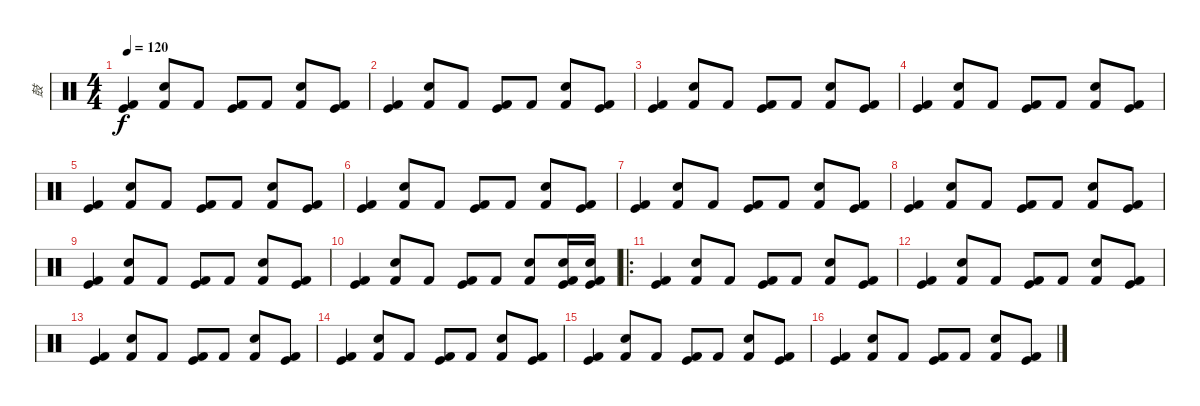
\track ("鼓" "鼓") {instrument percussion}
\staff {score}
\articulation defaults
\ts (4 4)
\tempo 120
\clef neutral
\ks c
("Kick (hit) 2" "Kick (hit)").4{dy f} ("Kick (hit) 2" "Electric Snare (hit)").8 "Kick (hit) 2".8 ("Kick (hit) 2" "Kick (hit)").8 "Kick (hit) 2".8 ("Kick (hit) 2" "Electric Snare (hit)").8 ("Kick (hit) 2" "Kick (hit)").8 |
("Kick (hit) 2" "Kick (hit)").4 ("Kick (hit) 2" "Electric Snare (hit)").8 "Kick (hit) 2".8 ("Kick (hit) 2" "Kick (hit)").8 "Kick (hit) 2".8 ("Kick (hit) 2" "Electric Snare (hit)").8 ("Kick (hit) 2" "Kick (hit)").8 |
("Kick (hit) 2" "Kick (hit)").4 ("Kick (hit) 2" "Electric Snare (hit)").8 "Kick (hit) 2".8 ("Kick (hit) 2" "Kick (hit)").8 "Kick (hit) 2".8 ("Kick (hit) 2" "Electric Snare (hit)").8 ("Kick (hit) 2" "Kick (hit)").8 |
("Kick (hit) 2" "Kick (hit)").4 ("Kick (hit) 2" "Electric Snare (hit)").8 "Kick (hit) 2".8 ("Kick (hit) 2" "Kick (hit)").8 "Kick (hit) 2".8 ("Kick (hit) 2" "Electric Snare (hit)").8 ("Kick (hit) 2" "Kick (hit)").8 |
("Kick (hit) 2" "Kick (hit)").4 ("Kick (hit) 2" "Electric Snare (hit)").8 "Kick (hit) 2".8 ("Kick (hit) 2" "Kick (hit)").8 "Kick (hit) 2".8 ("Kick (hit) 2" "Electric Snare (hit)").8 ("Kick (hit) 2" "Kick (hit)").8 |
("Kick (hit) 2" "Kick (hit)").4 ("Kick (hit) 2" "Electric Snare (hit)").8 "Kick (hit) 2".8 ("Kick (hit) 2" "Kick (hit)").8 "Kick (hit) 2".8 ("Kick (hit) 2" "Electric Snare (hit)").8 ("Kick (hit) 2" "Kick (hit)").8 |
("Kick (hit) 2" "Kick (hit)").4 ("Kick (hit) 2" "Electric Snare (hit)").8 "Kick (hit) 2".8 ("Kick (hit) 2" "Kick (hit)").8 "Kick (hit) 2".8 ("Kick (hit) 2" "Electric Snare (hit)").8 ("Kick (hit) 2" "Kick (hit)").8 |
("Kick (hit) 2" "Kick (hit)").4 ("Kick (hit) 2" "Electric Snare (hit)").8 "Kick (hit) 2".8 ("Kick (hit) 2" "Kick (hit)").8 "Kick (hit) 2".8 ("Kick (hit) 2" "Electric Snare (hit)").8 ("Kick (hit) 2" "Kick (hit)").8 |
("Kick (hit) 2" "Kick (hit)").4 ("Kick (hit) 2" "Electric Snare (hit)").8 "Kick (hit) 2".8 ("Kick (hit) 2" "Kick (hit)").8 "Kick (hit) 2".8 ("Kick (hit) 2" "Electric Snare (hit)").8 ("Kick (hit) 2" "Kick (hit)").8 |
("Kick (hit) 2" "Kick (hit)").4 ("Kick (hit) 2" "Electric Snare (hit)").8 "Kick (hit) 2".8 ("Kick (hit) 2" "Kick (hit)").8 "Kick (hit) 2".8 ("Kick (hit) 2" "Electric Snare (hit)").8 ("Kick (hit) 2" "Kick (hit)" "Electric Snare (hit)").16 ("Kick (hit) 2" "Kick (hit)" "Electric Snare (hit)").16 |
\ro
("Kick (hit) 2" "Kick (hit)").4 ("Kick (hit) 2" "Electric Snare (hit)").8 "Kick (hit) 2".8 ("Kick (hit) 2" "Kick (hit)").8 "Kick (hit) 2".8 ("Kick (hit) 2" "Electric Snare (hit)").8 ("Kick (hit) 2" "Kick (hit)").8 |
("Kick (hit) 2" "Kick (hit)").4 ("Kick (hit) 2" "Electric Snare (hit)").8 "Kick (hit) 2".8 ("Kick (hit) 2" "Kick (hit)").8 "Kick (hit) 2".8 ("Kick (hit) 2" "Electric Snare (hit)").8 ("Kick (hit) 2" "Kick (hit)").8 |
("Kick (hit) 2" "Kick (hit)").4 ("Kick (hit) 2" "Electric Snare (hit)").8 "Kick (hit) 2".8 ("Kick (hit) 2" "Kick (hit)").8 "Kick (hit) 2".8 ("Kick (hit) 2" "Electric Snare (hit)").8 ("Kick (hit) 2" "Kick (hit)").8 |
("Kick (hit) 2" "Kick (hit)").4 ("Kick (hit) 2" "Electric Snare (hit)").8 "Kick (hit) 2".8 ("Kick (hit) 2" "Kick (hit)").8 "Kick (hit) 2".8 ("Kick (hit) 2" "Electric Snare (hit)").8 ("Kick (hit) 2" "Kick (hit)").8 |
("Kick (hit) 2" "Kick (hit)").4 ("Kick (hit) 2" "Electric Snare (hit)").8 "Kick (hit) 2".8 ("Kick (hit) 2" "Kick (hit)").8 "Kick (hit) 2".8 ("Kick (hit) 2" "Electric Snare (hit)").8 ("Kick (hit) 2" "Kick (hit)").8 |
("Kick (hit) 2" "Kick (hit)").4 ("Kick (hit) 2" "Electric Snare (hit)").8 "Kick (hit) 2".8 ("Kick (hit) 2" "Kick (hit)").8 "Kick (hit) 2".8 ("Kick (hit) 2" "Electric Snare (hit)").8 ("Kick (hit) 2" "Kick (hit)").8
